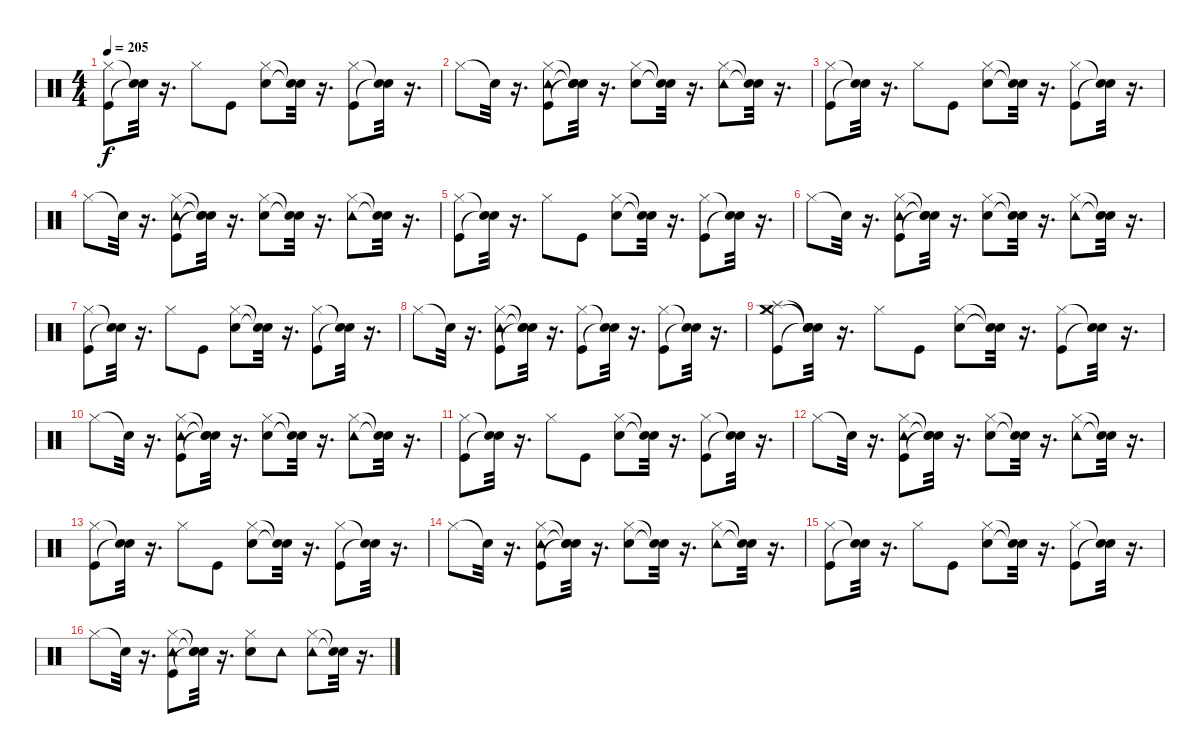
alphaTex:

\track "" {instrument percussion}
\staff {score}
\articulation defaults
\ts (4 4)
\tempo 205
\clef neutral
\ks c
("Hi-Hat (closed)" "Kick (hit)").8{dy f} ("Snare (hit)"{t} "Snare (hit)"{t}).32 r.16{d} "Hi-Hat (closed)".8 "Kick (hit)".8 ("Hi-Hat (closed)" "Electric Snare (hit)").8 ("Snare (hit)"{t} "Snare (hit)"{t}).32 r.16{d} ("Hi-Hat (closed)" "Kick (hit)").8 ("Snare (hit)"{t} "Snare (hit)"{t}).32 r.16{d} |
"Hi-Hat (closed)".8 "Snare (hit)"{t}.32 r.16{d} ("Hi-Hat (closed)" "Kick (hit)" "Tambourine (hit)").8 ("Snare (hit)"{t} "Snare (hit)"{t} "Snare (hit)"{t}).32 r.16{d} ("Hi-Hat (closed)" "Electric Snare (hit)").8 ("Snare (hit)"{t} "Snare (hit)"{t}).32 r.16{d} ("Hi-Hat (closed)" "Tambourine (hit)").8 ("Snare (hit)"{t} "Snare (hit)"{t}).32 r.16{d} |
("Kick (hit)" "Hi-Hat (closed)").8 ("Snare (hit)"{t} "Snare (hit)"{t}).32 r.16{d} "Hi-Hat (closed)".8 "Kick (hit)".8 ("Hi-Hat (closed)" "Electric Snare (hit)").8 ("Snare (hit)"{t} "Snare (hit)"{t}).32 r.16{d} ("Hi-Hat (closed)" "Kick (hit)").8 ("Snare (hit)"{t} "Snare (hit)"{t}).32 r.16{d} |
"Hi-Hat (closed)".8 "Snare (hit)"{t}.32 r.16{d} ("Hi-Hat (closed)" "Kick (hit)" "Tambourine (hit)").8 ("Snare (hit)"{t} "Snare (hit)"{t} "Snare (hit)"{t}).32 r.16{d} ("Hi-Hat (closed)" "Electric Snare (hit)").8 ("Snare (hit)"{t} "Snare (hit)"{t}).32 r.16{d} ("Hi-Hat (closed)" "Tambourine (hit)").8 ("Snare (hit)"{t} "Snare (hit)"{t}).32 r.16{d} |
("Kick (hit)" "Hi-Hat (closed)").8 ("Snare (hit)"{t} "Snare (hit)"{t}).32 r.16{d} "Hi-Hat (closed)".8 "Kick (hit)".8 ("Hi-Hat (closed)" "Electric Snare (hit)").8 ("Snare (hit)"{t} "Snare (hit)"{t}).32 r.16{d} ("Hi-Hat (closed)" "Kick (hit)").8 ("Snare (hit)"{t} "Snare (hit)"{t}).32 r.16{d} |
"Hi-Hat (closed)".8 "Snare (hit)"{t}.32 r.16{d} ("Hi-Hat (closed)" "Kick (hit)" "Tambourine (hit)").8 ("Snare (hit)"{t} "Snare (hit)"{t} "Snare (hit)"{t}).32 r.16{d} ("Hi-Hat (closed)" "Electric Snare (hit)").8 ("Snare (hit)"{t} "Snare (hit)"{t}).32 r.16{d} ("Hi-Hat (closed)" "Tambourine (hit)").8 ("Snare (hit)"{t} "Snare (hit)"{t}).32 r.16{d} |
("Kick (hit)" "Hi-Hat (closed)").8 ("Snare (hit)"{t} "Snare (hit)"{t}).32 r.16{d} "Hi-Hat (closed)".8 "Kick (hit)".8 ("Hi-Hat (closed)" "Electric Snare (hit)").8 ("Snare (hit)"{t} "Snare (hit)"{t}).32 r.16{d} ("Hi-Hat (closed)" "Kick (hit)").8 ("Snare (hit)"{t} "Snare (hit)"{t}).32 r.16{d} |
"Hi-Hat (closed)".8 "Snare (hit)"{t}.32 r.16{d} ("Hi-Hat (closed)" "Kick (hit)" "Tambourine (hit)").8 ("Snare (hit)"{t} "Snare (hit)"{t} "Snare (hit)"{t}).32 r.16{d} ("Hi-Hat (closed)" "Kick (hit)").8 ("Snare (hit)"{t} "Snare (hit)"{t}).32 r.16{d} ("Hi-Hat (closed)" "Kick (hit)").8 ("Snare (hit)"{t} "Snare (hit)"{t}).32 r.16{d} |
("Kick (hit)" "Hi-Hat (closed)" "Splash (hit)" "Crash medium (hit)").8 ("Snare (hit)"{t} "Snare (hit)"{t} "Snare (hit)"{t} "Snare (hit)"{t}).32 r.16{d} "Hi-Hat (closed)".8 "Kick (hit)".8 ("Hi-Hat (closed)" "Electric Snare (hit)").8 ("Snare (hit)"{t} "Snare (hit)"{t}).32 r.16{d} ("Hi-Hat (closed)" "Kick (hit)").8 ("Snare (hit)"{t} "Snare (hit)"{t}).32 r.16{d} |
"Hi-Hat (closed)".8 "Snare (hit)"{t}.32 r.16{d} ("Hi-Hat (closed)" "Kick (hit)" "Tambourine (hit)").8 ("Snare (hit)"{t} "Snare (hit)"{t} "Snare (hit)"{t}).32 r.16{d} ("Hi-Hat (closed)" "Electric Snare (hit)").8 ("Snare (hit)"{t} "Snare (hit)"{t}).32 r.16{d} ("Hi-Hat (closed)" "Tambourine (hit)").8 ("Snare (hit)"{t} "Snare (hit)"{t}).32 r.16{d} |
("Kick (hit)" "Hi-Hat (closed)").8 ("Snare (hit)"{t} "Snare (hit)"{t}).32 r.16{d} "Hi-Hat (closed)".8 "Kick (hit)".8 ("Hi-Hat (closed)" "Electric Snare (hit)").8 ("Snare (hit)"{t} "Snare (hit)"{t}).32 r.16{d} ("Hi-Hat (closed)" "Kick (hit)").8 ("Snare (hit)"{t} "Snare (hit)"{t}).32 r.16{d} |
"Hi-Hat (closed)".8 "Snare (hit)"{t}.32 r.16{d} ("Hi-Hat (closed)" "Kick (hit)" "Tambourine (hit)").8 ("Snare (hit)"{t} "Snare (hit)"{t} "Snare (hit)"{t}).32 r.16{d} ("Hi-Hat (closed)" "Electric Snare (hit)").8 ("Snare (hit)"{t} "Snare (hit)"{t}).32 r.16{d} ("Hi-Hat (closed)" "Tambourine (hit)").8 ("Snare (hit)"{t} "Snare (hit)"{t}).32 r.16{d} |
("Kick (hit)" "Hi-Hat (closed)").8 ("Snare (hit)"{t} "Snare (hit)"{t}).32 r.16{d} "Hi-Hat (closed)".8 "Kick (hit)".8 ("Hi-Hat (closed)" "Electric Snare (hit)").8 ("Snare (hit)"{t} "Snare (hit)"{t}).32 r.16{d} ("Hi-Hat (closed)" "Kick (hit)").8 ("Snare (hit)"{t} "Snare (hit)"{t}).32 r.16{d} |
"Hi-Hat (closed)".8 "Snare (hit)"{t}.32 r.16{d} ("Hi-Hat (closed)" "Kick (hit)" "Tambourine (hit)").8 ("Snare (hit)"{t} "Snare (hit)"{t} "Snare (hit)"{t}).32 r.16{d} ("Hi-Hat (closed)" "Electric Snare (hit)").8 ("Snare (hit)"{t} "Snare (hit)"{t}).32 r.16{d} ("Hi-Hat (closed)" "Tambourine (hit)").8 ("Snare (hit)"{t} "Snare (hit)"{t}).32 r.16{d} |
("Kick (hit)" "Hi-Hat (closed)").8 ("Snare (hit)"{t} "Snare (hit)"{t}).32 r.16{d} "Hi-Hat (closed)".8 "Kick (hit)".8 ("Hi-Hat (closed)" "Electric Snare (hit)").8 ("Snare (hit)"{t} "Snare (hit)"{t}).32 r.16{d} ("Hi-Hat (closed)" "Kick (hit)").8 ("Snare (hit)"{t} "Snare (hit)"{t}).32 r.16{d} |
"Hi-Hat (closed)".8 "Snare (hit)"{t}.32 r.16{d} ("Hi-Hat (closed)" "Kick (hit)" "Tambourine (hit)").8 ("Snare (hit)"{t} "Snare (hit)"{t} "Snare (hit)"{t}).32 r.16{d} ("Hi-Hat (closed)" "Electric Snare (hit)").8 "Tambourine (hit)".8 ("Hi-Hat (closed)" "Tambourine (hit)").8 ("Snare (hit)"{t} "Snare (hit)"{t}).32 r.16{d}
